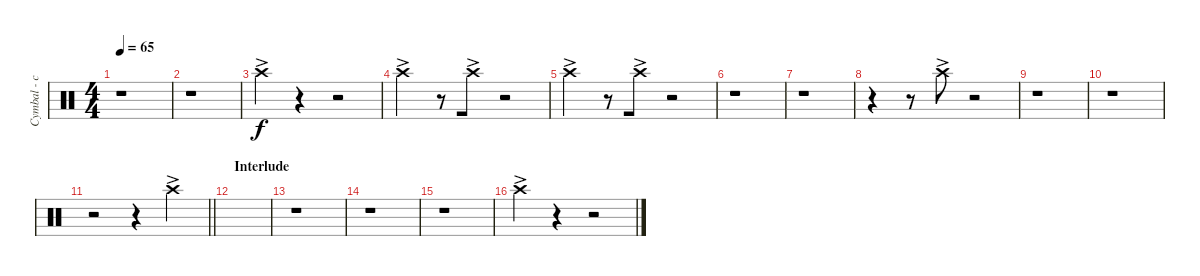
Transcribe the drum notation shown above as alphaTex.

\track ("Cymbal - crash - right" "Cymbal - c") {instrument percussion}
\staff {score}
\articulation defaults
\ts (4 4)
\tempo 65
\clef neutral
\ks c
r.1{dy f} |
r.1 |
"Crash high (hit)"{ac}.4 r.4 r.2 |
"Crash high (hit)"{ac}.4{beam merge} r.8 "Crash high (hit)"{ac}.8 r.2 |
"Crash high (hit)"{ac}.4{beam merge} r.8 "Crash high (hit)"{ac}.8 r.2 |
r.1 |
r.1 |
r.4{beam merge} r.8 "Crash high (hit)"{ac}.8 r.2 |
r.1 |
r.1 |
\barLineRight lightlight
r.2 r.4 "Crash high (hit)"{ac}.4 |
\section ("" "Interlude")
|
r.1 |
r.1 |
r.1 |
"Crash high (hit)"{ac}.4 r.4 r.2
